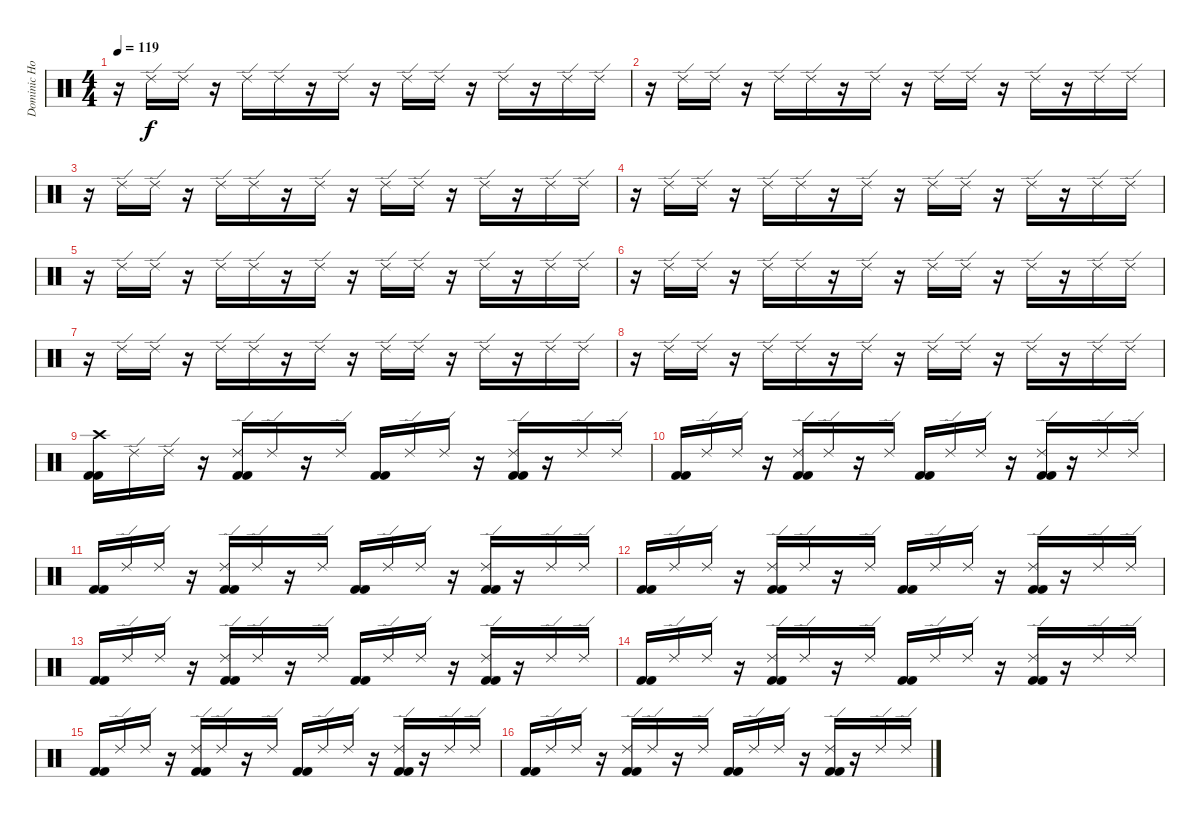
\track ("Dominic Howard" "Dominic Ho") {instrument percussion}
\staff {score}
\articulation defaults
\ts (4 4)
\tempo 119
\clef neutral
\ks c
r.16{dy f} "Ride (edge) 2".16 "Ride (edge) 2".16 r.16 "Ride (edge) 2".16 "Ride (edge) 2".16 r.16 "Ride (edge) 2".16 r.16 "Ride (edge) 2".16 "Ride (edge) 2".16 r.16 "Ride (edge) 2".16 r.16 "Ride (edge) 2".16 "Ride (edge) 2".16 |
r.16 "Ride (edge) 2".16 "Ride (edge) 2".16 r.16 "Ride (edge) 2".16 "Ride (edge) 2".16 r.16 "Ride (edge) 2".16 r.16 "Ride (edge) 2".16 "Ride (edge) 2".16 r.16 "Ride (edge) 2".16 r.16 "Ride (edge) 2".16 "Ride (edge) 2".16 |
r.16 "Ride (edge) 2".16 "Ride (edge) 2".16 r.16 "Ride (edge) 2".16 "Ride (edge) 2".16 r.16 "Ride (edge) 2".16 r.16 "Ride (edge) 2".16 "Ride (edge) 2".16 r.16 "Ride (edge) 2".16 r.16 "Ride (edge) 2".16 "Ride (edge) 2".16 |
r.16 "Ride (edge) 2".16 "Ride (edge) 2".16 r.16 "Ride (edge) 2".16 "Ride (edge) 2".16 r.16 "Ride (edge) 2".16 r.16 "Ride (edge) 2".16 "Ride (edge) 2".16 r.16 "Ride (edge) 2".16 r.16 "Ride (edge) 2".16 "Ride (edge) 2".16 |
r.16 "Ride (edge) 2".16 "Ride (edge) 2".16 r.16 "Ride (edge) 2".16 "Ride (edge) 2".16 r.16 "Ride (edge) 2".16 r.16 "Ride (edge) 2".16 "Ride (edge) 2".16 r.16 "Ride (edge) 2".16 r.16 "Ride (edge) 2".16 "Ride (edge) 2".16 |
r.16 "Ride (edge) 2".16 "Ride (edge) 2".16 r.16 "Ride (edge) 2".16 "Ride (edge) 2".16 r.16 "Ride (edge) 2".16 r.16 "Ride (edge) 2".16 "Ride (edge) 2".16 r.16 "Ride (edge) 2".16 r.16 "Ride (edge) 2".16 "Ride (edge) 2".16 |
r.16 "Ride (edge) 2".16 "Ride (edge) 2".16 r.16 "Ride (edge) 2".16 "Ride (edge) 2".16 r.16 "Ride (edge) 2".16 r.16 "Ride (edge) 2".16 "Ride (edge) 2".16 r.16 "Ride (edge) 2".16 r.16 "Ride (edge) 2".16 "Ride (edge) 2".16 |
r.16 "Ride (edge) 2".16 "Ride (edge) 2".16 r.16 "Ride (edge) 2".16 "Ride (edge) 2".16 r.16 "Ride (edge) 2".16 r.16 "Ride (edge) 2".16 "Ride (edge) 2".16 r.16 "Ride (edge) 2".16 r.16 "Ride (edge) 2".16 "Ride (edge) 2".16 |
("Crash high (hit)" "Kick (hit) 2" "Kick (hit) 2").16 "Ride (edge) 2".16 "Ride (edge) 2".16 r.16 ("Ride (edge) 2" "Kick (hit) 2" "Kick (hit) 2").16 "Ride (edge) 2".16 r.16 "Ride (edge) 2".16 ("Kick (hit) 2" "Kick (hit) 2").16 "Ride (edge) 2".16 "Ride (edge) 2".16 r.16 ("Ride (edge) 2" "Kick (hit) 2" "Kick (hit) 2").16 r.16 "Ride (edge) 2".16 "Ride (edge) 2".16 |
("Kick (hit) 2" "Kick (hit) 2").16 "Ride (edge) 2".16 "Ride (edge) 2".16 r.16 ("Ride (edge) 2" "Kick (hit) 2" "Kick (hit) 2").16 "Ride (edge) 2".16 r.16 "Ride (edge) 2".16 ("Kick (hit) 2" "Kick (hit) 2").16 "Ride (edge) 2".16 "Ride (edge) 2".16 r.16 ("Ride (edge) 2" "Kick (hit) 2" "Kick (hit) 2").16 r.16 "Ride (edge) 2".16 "Ride (edge) 2".16 |
("Kick (hit) 2" "Kick (hit) 2").16 "Ride (edge) 2".16 "Ride (edge) 2".16 r.16 ("Ride (edge) 2" "Kick (hit) 2" "Kick (hit) 2").16 "Ride (edge) 2".16 r.16 "Ride (edge) 2".16 ("Kick (hit) 2" "Kick (hit) 2").16 "Ride (edge) 2".16 "Ride (edge) 2".16 r.16 ("Ride (edge) 2" "Kick (hit) 2" "Kick (hit) 2").16 r.16 "Ride (edge) 2".16 "Ride (edge) 2".16 |
("Kick (hit) 2" "Kick (hit) 2").16 "Ride (edge) 2".16 "Ride (edge) 2".16 r.16 ("Ride (edge) 2" "Kick (hit) 2" "Kick (hit) 2").16 "Ride (edge) 2".16 r.16 "Ride (edge) 2".16 ("Kick (hit) 2" "Kick (hit) 2").16 "Ride (edge) 2".16 "Ride (edge) 2".16 r.16 ("Ride (edge) 2" "Kick (hit) 2" "Kick (hit) 2").16 r.16 "Ride (edge) 2".16 "Ride (edge) 2".16 |
("Kick (hit) 2" "Kick (hit) 2").16 "Ride (edge) 2".16 "Ride (edge) 2".16 r.16 ("Ride (edge) 2" "Kick (hit) 2" "Kick (hit) 2").16 "Ride (edge) 2".16 r.16 "Ride (edge) 2".16 ("Kick (hit) 2" "Kick (hit) 2").16 "Ride (edge) 2".16 "Ride (edge) 2".16 r.16 ("Ride (edge) 2" "Kick (hit) 2" "Kick (hit) 2").16 r.16 "Ride (edge) 2".16 "Ride (edge) 2".16 |
("Kick (hit) 2" "Kick (hit) 2").16 "Ride (edge) 2".16 "Ride (edge) 2".16 r.16 ("Ride (edge) 2" "Kick (hit) 2" "Kick (hit) 2").16 "Ride (edge) 2".16 r.16 "Ride (edge) 2".16 ("Kick (hit) 2" "Kick (hit) 2").16 "Ride (edge) 2".16 "Ride (edge) 2".16 r.16 ("Ride (edge) 2" "Kick (hit) 2" "Kick (hit) 2").16 r.16 "Ride (edge) 2".16 "Ride (edge) 2".16 |
("Kick (hit) 2" "Kick (hit) 2").16 "Ride (edge) 2".16 "Ride (edge) 2".16 r.16 ("Ride (edge) 2" "Kick (hit) 2" "Kick (hit) 2").16 "Ride (edge) 2".16 r.16 "Ride (edge) 2".16 ("Kick (hit) 2" "Kick (hit) 2").16 "Ride (edge) 2".16 "Ride (edge) 2".16 r.16 ("Ride (edge) 2" "Kick (hit) 2" "Kick (hit) 2").16 r.16 "Ride (edge) 2".16 "Ride (edge) 2".16 |
("Kick (hit) 2" "Kick (hit) 2").16 "Ride (edge) 2".16 "Ride (edge) 2".16 r.16 ("Ride (edge) 2" "Kick (hit) 2" "Kick (hit) 2").16 "Ride (edge) 2".16 r.16 "Ride (edge) 2".16 ("Kick (hit) 2" "Kick (hit) 2").16 "Ride (edge) 2".16 "Ride (edge) 2".16 r.16 ("Ride (edge) 2" "Kick (hit) 2" "Kick (hit) 2").16 r.16 "Ride (edge) 2".16 "Ride (edge) 2".16
